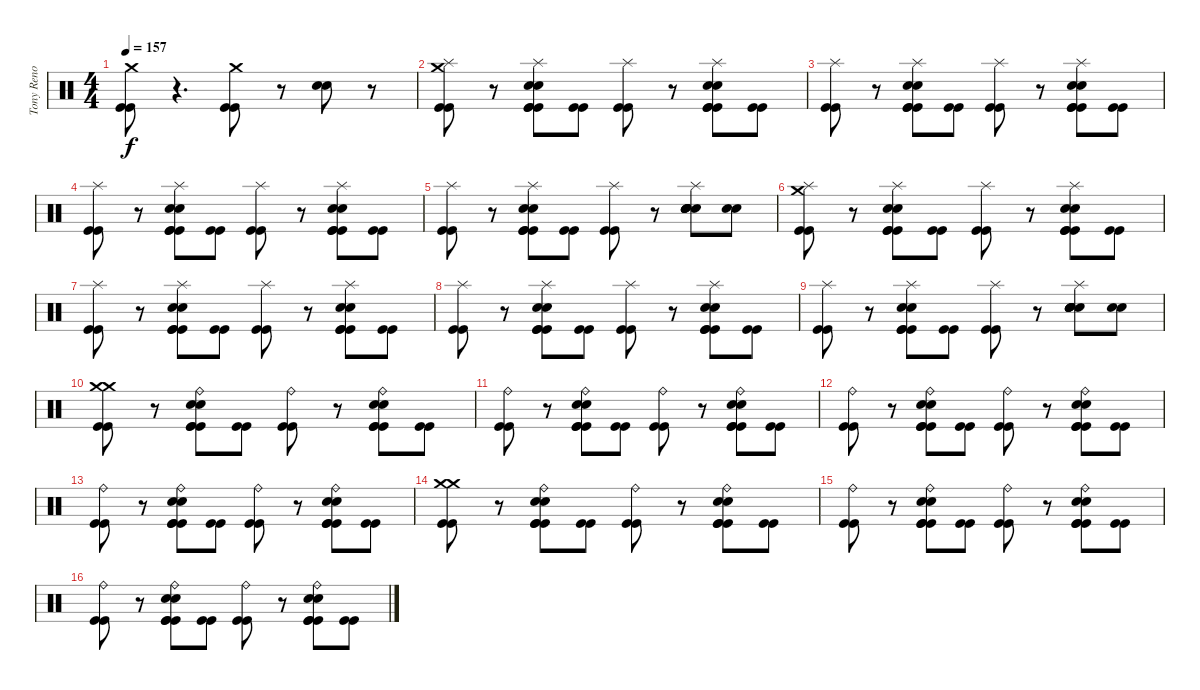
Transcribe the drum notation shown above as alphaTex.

\track ("Tony Reno ( 1984 < Ian Haughland )" "Tony Reno ") {instrument percussion}
\staff {score}
\articulation defaults
\ts (4 4)
\tempo 157
\clef neutral
\ks c
("Kick (hit)" "Kick (hit)" "Crash medium (hit)").8{dy f} r.4{d} ("Crash medium (hit)" "Kick (hit)" "Kick (hit)").8 r.8 ("Electric Snare (hit)" "Electric Snare (hit)").8 r.8 |
("Splash (hit)" "Crash medium (hit)" "Kick (hit)" "Kick (hit)").8 r.8 ("Kick (hit)" "Kick (hit)" "Splash (hit)" "Electric Snare (hit)" "Electric Snare (hit)" "Kick (hit)").8 ("Kick (hit)" "Kick (hit)").8 ("Splash (hit)" "Kick (hit)" "Kick (hit)").8 r.8 ("Kick (hit)" "Kick (hit)" "Electric Snare (hit)" "Splash (hit)" "Electric Snare (hit)" "Kick (hit)").8 ("Kick (hit)" "Kick (hit)").8 |
("Splash (hit)" "Kick (hit)" "Kick (hit)").8 r.8 ("Kick (hit)" "Kick (hit)" "Splash (hit)" "Electric Snare (hit)" "Electric Snare (hit)" "Kick (hit)").8 ("Kick (hit)" "Kick (hit)").8 ("Splash (hit)" "Kick (hit)" "Kick (hit)").8 r.8 ("Kick (hit)" "Kick (hit)" "Electric Snare (hit)" "Splash (hit)" "Electric Snare (hit)" "Kick (hit)").8 ("Kick (hit)" "Kick (hit)").8 |
("Splash (hit)" "Kick (hit)" "Kick (hit)").8 r.8 ("Kick (hit)" "Kick (hit)" "Splash (hit)" "Electric Snare (hit)" "Electric Snare (hit)" "Kick (hit)").8 ("Kick (hit)" "Kick (hit)").8 ("Splash (hit)" "Kick (hit)" "Kick (hit)").8 r.8 ("Kick (hit)" "Kick (hit)" "Electric Snare (hit)" "Splash (hit)" "Electric Snare (hit)" "Kick (hit)").8 ("Kick (hit)" "Kick (hit)").8 |
("Splash (hit)" "Kick (hit)" "Kick (hit)").8 r.8 ("Kick (hit)" "Kick (hit)" "Splash (hit)" "Electric Snare (hit)" "Electric Snare (hit)" "Kick (hit)").8 ("Kick (hit)" "Kick (hit)").8 ("Splash (hit)" "Kick (hit)" "Kick (hit)").8 r.8 ("Electric Snare (hit)" "Electric Snare (hit)" "Electric Snare (hit)" "Electric Snare (hit)" "Splash (hit)" "Electric Snare (hit)").8 ("Electric Snare (hit)" "Electric Snare (hit)").8 |
("Splash (hit)" "Crash medium (hit)" "Kick (hit)" "Kick (hit)").8 r.8 ("Kick (hit)" "Kick (hit)" "Splash (hit)" "Electric Snare (hit)" "Electric Snare (hit)" "Kick (hit)").8 ("Kick (hit)" "Kick (hit)").8 ("Splash (hit)" "Kick (hit)" "Kick (hit)").8 r.8 ("Kick (hit)" "Kick (hit)" "Electric Snare (hit)" "Splash (hit)" "Electric Snare (hit)" "Kick (hit)").8 ("Kick (hit)" "Kick (hit)").8 |
("Splash (hit)" "Kick (hit)" "Kick (hit)").8 r.8 ("Kick (hit)" "Kick (hit)" "Splash (hit)" "Electric Snare (hit)" "Electric Snare (hit)" "Kick (hit)").8 ("Kick (hit)" "Kick (hit)").8 ("Splash (hit)" "Kick (hit)" "Kick (hit)").8 r.8 ("Kick (hit)" "Kick (hit)" "Electric Snare (hit)" "Splash (hit)" "Electric Snare (hit)" "Kick (hit)").8 ("Kick (hit)" "Kick (hit)").8 |
("Splash (hit)" "Kick (hit)" "Kick (hit)").8 r.8 ("Kick (hit)" "Kick (hit)" "Splash (hit)" "Electric Snare (hit)" "Electric Snare (hit)" "Kick (hit)").8 ("Kick (hit)" "Kick (hit)").8 ("Splash (hit)" "Kick (hit)" "Kick (hit)").8 r.8 ("Kick (hit)" "Kick (hit)" "Electric Snare (hit)" "Splash (hit)" "Electric Snare (hit)" "Kick (hit)").8 ("Kick (hit)" "Kick (hit)").8 |
("Splash (hit)" "Kick (hit)" "Kick (hit)").8 r.8 ("Kick (hit)" "Kick (hit)" "Splash (hit)" "Electric Snare (hit)" "Electric Snare (hit)" "Kick (hit)").8 ("Kick (hit)" "Kick (hit)").8 ("Splash (hit)" "Kick (hit)" "Kick (hit)").8 r.8 ("Electric Snare (hit)" "Electric Snare (hit)" "Electric Snare (hit)" "Electric Snare (hit)" "Splash (hit)" "Electric Snare (hit)").8 ("Electric Snare (hit)" "Electric Snare (hit)").8 |
("Kick (hit)" "Kick (hit)" "Crash medium (hit)" "Crash medium (hit)").8 r.8 ("Kick (hit)" "Kick (hit)" "Electric Snare (hit)" "Electric Snare (hit)" "Ride (bell)" "Kick (hit)").8 ("Kick (hit)" "Kick (hit)").8 ("Kick (hit)" "Kick (hit)" "Ride (bell)").8 r.8 ("Kick (hit)" "Kick (hit)" "Electric Snare (hit)" "Electric Snare (hit)" "Ride (bell)" "Kick (hit)").8 ("Kick (hit)" "Kick (hit)").8 |
("Ride (bell)" "Kick (hit)" "Kick (hit)").8 r.8 ("Kick (hit)" "Kick (hit)" "Electric Snare (hit)" "Electric Snare (hit)" "Ride (bell)" "Kick (hit)").8 ("Kick (hit)" "Kick (hit)").8 ("Kick (hit)" "Kick (hit)" "Ride (bell)").8 r.8 ("Kick (hit)" "Kick (hit)" "Electric Snare (hit)" "Electric Snare (hit)" "Ride (bell)" "Kick (hit)").8 ("Kick (hit)" "Kick (hit)").8 |
("Ride (bell)" "Kick (hit)" "Kick (hit)").8 r.8 ("Kick (hit)" "Kick (hit)" "Electric Snare (hit)" "Electric Snare (hit)" "Ride (bell)" "Kick (hit)").8 ("Kick (hit)" "Kick (hit)").8 ("Kick (hit)" "Kick (hit)" "Ride (bell)").8 r.8 ("Kick (hit)" "Kick (hit)" "Electric Snare (hit)" "Electric Snare (hit)" "Ride (bell)" "Kick (hit)").8 ("Kick (hit)" "Kick (hit)").8 |
("Ride (bell)" "Kick (hit)" "Kick (hit)").8 r.8 ("Kick (hit)" "Kick (hit)" "Electric Snare (hit)" "Electric Snare (hit)" "Ride (bell)" "Kick (hit)").8 ("Kick (hit)" "Kick (hit)").8 ("Kick (hit)" "Kick (hit)" "Ride (bell)").8 r.8 ("Kick (hit)" "Kick (hit)" "Electric Snare (hit)" "Electric Snare (hit)" "Ride (bell)" "Kick (hit)").8 ("Kick (hit)" "Kick (hit)").8 |
("Kick (hit)" "Kick (hit)" "Crash medium (hit)" "Crash medium (hit)").8 r.8 ("Kick (hit)" "Kick (hit)" "Electric Snare (hit)" "Electric Snare (hit)" "Ride (bell)" "Kick (hit)").8 ("Kick (hit)" "Kick (hit)").8 ("Kick (hit)" "Kick (hit)" "Ride (bell)").8 r.8 ("Kick (hit)" "Kick (hit)" "Electric Snare (hit)" "Electric Snare (hit)" "Ride (bell)" "Kick (hit)").8 ("Kick (hit)" "Kick (hit)").8 |
("Ride (bell)" "Kick (hit)" "Kick (hit)").8 r.8 ("Kick (hit)" "Kick (hit)" "Electric Snare (hit)" "Electric Snare (hit)" "Ride (bell)" "Kick (hit)").8 ("Kick (hit)" "Kick (hit)").8 ("Kick (hit)" "Kick (hit)" "Ride (bell)").8 r.8 ("Kick (hit)" "Kick (hit)" "Electric Snare (hit)" "Electric Snare (hit)" "Ride (bell)" "Kick (hit)").8 ("Kick (hit)" "Kick (hit)").8 |
("Ride (bell)" "Kick (hit)" "Kick (hit)").8 r.8 ("Kick (hit)" "Kick (hit)" "Electric Snare (hit)" "Electric Snare (hit)" "Ride (bell)" "Kick (hit)").8 ("Kick (hit)" "Kick (hit)").8 ("Kick (hit)" "Kick (hit)" "Ride (bell)").8 r.8 ("Kick (hit)" "Kick (hit)" "Electric Snare (hit)" "Electric Snare (hit)" "Ride (bell)" "Kick (hit)").8 ("Kick (hit)" "Kick (hit)").8
